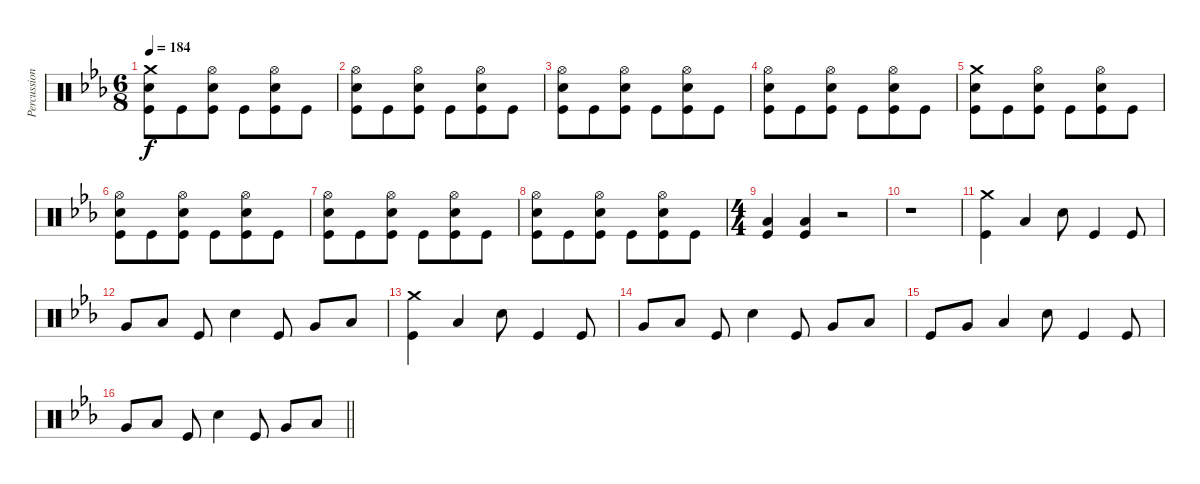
\track ("Percussion" "Percussion") {instrument percussion}
\staff {score}
\articulation defaults
\ts (6 8)
\tempo 184
\clef neutral
\ks eb
("Crash medium (hit)" "Electric Snare (hit)" "Kick (hit)").8{dy f} "Kick (hit)".8 ("Hi-Hat (open)" "Electric Snare (hit)" "Kick (hit)").8 "Kick (hit)".8 ("Hi-Hat (open)" "Electric Snare (hit)" "Kick (hit)").8 "Kick (hit)".8 |
("Hi-Hat (open)" "Electric Snare (hit)" "Kick (hit)").8 "Kick (hit)".8 ("Hi-Hat (open)" "Electric Snare (hit)" "Kick (hit)").8 "Kick (hit)".8 ("Hi-Hat (open)" "Electric Snare (hit)" "Kick (hit)").8 "Kick (hit)".8 |
("Hi-Hat (open)" "Electric Snare (hit)" "Kick (hit)").8 "Kick (hit)".8 ("Hi-Hat (open)" "Electric Snare (hit)" "Kick (hit)").8 "Kick (hit)".8 ("Hi-Hat (open)" "Electric Snare (hit)" "Kick (hit)").8 "Kick (hit)".8 |
("Hi-Hat (open)" "Electric Snare (hit)" "Kick (hit)").8 "Kick (hit)".8 ("Hi-Hat (open)" "Electric Snare (hit)" "Kick (hit)").8 "Kick (hit)".8 ("Hi-Hat (open)" "Electric Snare (hit)" "Kick (hit)").8 "Kick (hit)".8 |
("Crash medium (hit)" "Electric Snare (hit)" "Kick (hit)").8 "Kick (hit)".8 ("Hi-Hat (open)" "Electric Snare (hit)" "Kick (hit)").8 "Kick (hit)".8 ("Hi-Hat (open)" "Electric Snare (hit)" "Kick (hit)").8 "Kick (hit)".8 |
("Hi-Hat (open)" "Electric Snare (hit)" "Kick (hit)").8 "Kick (hit)".8 ("Hi-Hat (open)" "Electric Snare (hit)" "Kick (hit)").8 "Kick (hit)".8 ("Hi-Hat (open)" "Electric Snare (hit)" "Kick (hit)").8 "Kick (hit)".8 |
("Hi-Hat (open)" "Electric Snare (hit)" "Kick (hit)").8 "Kick (hit)".8 ("Hi-Hat (open)" "Electric Snare (hit)" "Kick (hit)").8 "Kick (hit)".8 ("Hi-Hat (open)" "Electric Snare (hit)" "Kick (hit)").8 "Kick (hit)".8 |
("Hi-Hat (open)" "Electric Snare (hit)" "Kick (hit)").8 "Kick (hit)".8 ("Hi-Hat (open)" "Electric Snare (hit)" "Kick (hit)").8 "Kick (hit)".8 ("Hi-Hat (open)" "Electric Snare (hit)" "Kick (hit)").8 "Kick (hit)".8 |
\ts (4 4)
("Low Floor Tom (hit)" "Kick (hit)").4 ("Low Floor Tom (hit)" "Kick (hit)").4 r.2 |
r.1 |
("Crash medium (hit)" "Kick (hit)").4 "Low Floor Tom (hit)".4 "Electric Snare (hit)".8 "Kick (hit)".4 "Kick (hit)".8 |
"Very Low Tom (hit)".8 "Low Floor Tom (hit)".8 "Kick (hit)".8 "Electric Snare (hit)".4 "Kick (hit)".8 "Very Low Tom (hit)".8 "Low Floor Tom (hit)".8 |
("Crash medium (hit)" "Kick (hit)").4 "Low Floor Tom (hit)".4 "Electric Snare (hit)".8 "Kick (hit)".4 "Kick (hit)".8 |
"Very Low Tom (hit)".8 "Low Floor Tom (hit)".8 "Kick (hit)".8 "Electric Snare (hit)".4 "Kick (hit)".8 "Very Low Tom (hit)".8 "Low Floor Tom (hit)".8 |
"Kick (hit)".8 "Very Low Tom (hit)".8 "Low Floor Tom (hit)".4 "Electric Snare (hit)".8 "Kick (hit)".4 "Kick (hit)".8 |
\barLineRight lightlight "Very Low Tom (hit)".8 "Low Floor Tom (hit)".8 "Kick (hit)".8 "Electric Snare (hit)".4 "Kick (hit)".8 "Very Low Tom (hit)".8 "Low Floor Tom (hit)".8
